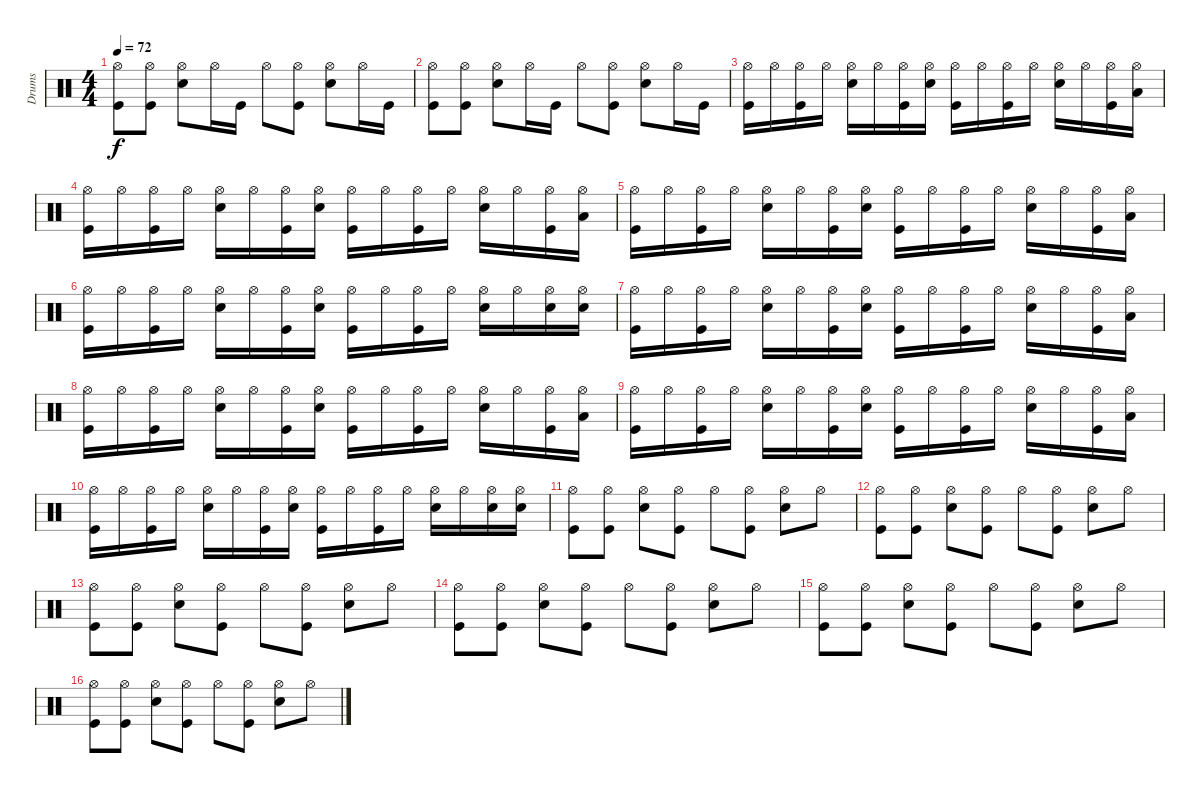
\track ("Drums" "Drums") {instrument percussion}
\staff {score}
\articulation defaults
\ts (4 4)
\tempo 72
\clef neutral
\ks c
("Kick (hit)" "Hi-Hat (open)").8{dy f} ("Kick (hit)" "Hi-Hat (open)").8 ("Snare (hit) 2" "Hi-Hat (open)").8 "Hi-Hat (open)".16 "Kick (hit)".16 "Hi-Hat (open)".8 ("Hi-Hat (open)" "Kick (hit)").8 ("Snare (hit) 2" "Hi-Hat (open)").8 "Hi-Hat (open)".16 "Kick (hit)".16 |
("Kick (hit)" "Hi-Hat (open)").8 ("Kick (hit)" "Hi-Hat (open)").8 ("Snare (hit) 2" "Hi-Hat (open)").8 "Hi-Hat (open)".16 "Kick (hit)".16 "Hi-Hat (open)".8 ("Hi-Hat (open)" "Kick (hit)").8 ("Snare (hit) 2" "Hi-Hat (open)").8 "Hi-Hat (open)".16 "Kick (hit)".16 |
("Kick (hit)" "Hi-Hat (open)").16 "Hi-Hat (open)".16 ("Kick (hit)" "Hi-Hat (open)").16 "Hi-Hat (open)".16 ("Snare (hit) 2" "Hi-Hat (open)").16 "Hi-Hat (open)".16 ("Kick (hit)" "Hi-Hat (open)").16 ("Snare (hit) 2" "Hi-Hat (open)").16 ("Hi-Hat (open)" "Kick (hit)").16 "Hi-Hat (open)".16 ("Kick (hit)" "Hi-Hat (open)").16 "Hi-Hat (open)".16 ("Snare (hit) 2" "Hi-Hat (open)").16 "Hi-Hat (open)".16 ("Kick (hit)" "Hi-Hat (open)").16 ("Low Tom (hit)" "Hi-Hat (open)").16 |
("Kick (hit)" "Hi-Hat (open)").16 "Hi-Hat (open)".16 ("Kick (hit)" "Hi-Hat (open)").16 "Hi-Hat (open)".16 ("Snare (hit) 2" "Hi-Hat (open)").16 "Hi-Hat (open)".16 ("Kick (hit)" "Hi-Hat (open)").16 ("Snare (hit) 2" "Hi-Hat (open)").16 ("Kick (hit)" "Hi-Hat (open)").16 "Hi-Hat (open)".16 ("Kick (hit)" "Hi-Hat (open)").16 "Hi-Hat (open)".16 ("Snare (hit) 2" "Hi-Hat (open)").16 "Hi-Hat (open)".16 ("Kick (hit)" "Hi-Hat (open)").16 ("Low Tom (hit)" "Hi-Hat (open)").16 |
("Kick (hit)" "Hi-Hat (open)").16 "Hi-Hat (open)".16 ("Kick (hit)" "Hi-Hat (open)").16 "Hi-Hat (open)".16 ("Snare (hit) 2" "Hi-Hat (open)").16 "Hi-Hat (open)".16 ("Hi-Hat (open)" "Kick (hit)").16 ("Snare (hit) 2" "Hi-Hat (open)").16 ("Kick (hit)" "Hi-Hat (open)").16 "Hi-Hat (open)".16 ("Kick (hit)" "Hi-Hat (open)").16 "Hi-Hat (open)".16 ("Snare (hit) 2" "Hi-Hat (open)").16 "Hi-Hat (open)".16 ("Kick (hit)" "Hi-Hat (open)").16 ("Low Tom (hit)" "Hi-Hat (open)").16 |
("Kick (hit)" "Hi-Hat (open)").16 "Hi-Hat (open)".16 ("Kick (hit)" "Hi-Hat (open)").16 "Hi-Hat (open)".16 ("Snare (hit) 2" "Hi-Hat (open)").16 "Hi-Hat (open)".16 ("Hi-Hat (open)" "Kick (hit)").16 ("Snare (hit) 2" "Hi-Hat (open)").16 ("Kick (hit)" "Hi-Hat (open)").16 "Hi-Hat (open)".16 ("Kick (hit)" "Hi-Hat (open)").16 "Hi-Hat (open)".16 ("Snare (hit) 2" "Hi-Hat (open)").16 "Hi-Hat (open)".16 ("Hi-Hat (open)" "Snare (hit) 2").16 ("Snare (hit) 2" "Hi-Hat (open)").16 |
("Kick (hit)" "Hi-Hat (open)").16 "Hi-Hat (open)".16 ("Kick (hit)" "Hi-Hat (open)").16 "Hi-Hat (open)".16 ("Snare (hit) 2" "Hi-Hat (open)").16 "Hi-Hat (open)".16 ("Kick (hit)" "Hi-Hat (open)").16 ("Snare (hit) 2" "Hi-Hat (open)").16 ("Hi-Hat (open)" "Kick (hit)").16 "Hi-Hat (open)".16 ("Kick (hit)" "Hi-Hat (open)").16 "Hi-Hat (open)".16 ("Snare (hit) 2" "Hi-Hat (open)").16 "Hi-Hat (open)".16 ("Kick (hit)" "Hi-Hat (open)").16 ("Low Tom (hit)" "Hi-Hat (open)").16 |
("Kick (hit)" "Hi-Hat (open)").16 "Hi-Hat (open)".16 ("Kick (hit)" "Hi-Hat (open)").16 "Hi-Hat (open)".16 ("Snare (hit) 2" "Hi-Hat (open)").16 "Hi-Hat (open)".16 ("Kick (hit)" "Hi-Hat (open)").16 ("Snare (hit) 2" "Hi-Hat (open)").16 ("Kick (hit)" "Hi-Hat (open)").16 "Hi-Hat (open)".16 ("Kick (hit)" "Hi-Hat (open)").16 "Hi-Hat (open)".16 ("Snare (hit) 2" "Hi-Hat (open)").16 "Hi-Hat (open)".16 ("Kick (hit)" "Hi-Hat (open)").16 ("Low Tom (hit)" "Hi-Hat (open)").16 |
("Kick (hit)" "Hi-Hat (open)").16 "Hi-Hat (open)".16 ("Kick (hit)" "Hi-Hat (open)").16 "Hi-Hat (open)".16 ("Snare (hit) 2" "Hi-Hat (open)").16 "Hi-Hat (open)".16 ("Hi-Hat (open)" "Kick (hit)").16 ("Snare (hit) 2" "Hi-Hat (open)").16 ("Kick (hit)" "Hi-Hat (open)").16 "Hi-Hat (open)".16 ("Kick (hit)" "Hi-Hat (open)").16 "Hi-Hat (open)".16 ("Snare (hit) 2" "Hi-Hat (open)").16 "Hi-Hat (open)".16 ("Kick (hit)" "Hi-Hat (open)").16 ("Low Tom (hit)" "Hi-Hat (open)").16 |
("Kick (hit)" "Hi-Hat (open)").16 "Hi-Hat (open)".16 ("Kick (hit)" "Hi-Hat (open)").16 "Hi-Hat (open)".16 ("Snare (hit) 2" "Hi-Hat (open)").16 "Hi-Hat (open)".16 ("Hi-Hat (open)" "Kick (hit)").16 ("Snare (hit) 2" "Hi-Hat (open)").16 ("Kick (hit)" "Hi-Hat (open)").16 "Hi-Hat (open)".16 ("Kick (hit)" "Hi-Hat (open)").16 "Hi-Hat (open)".16 ("Snare (hit) 2" "Hi-Hat (open)").16 "Hi-Hat (open)".16 ("Hi-Hat (open)" "Snare (hit) 2").16 ("Snare (hit) 2" "Hi-Hat (open)").16 |
("Kick (hit)" "Hi-Hat (open)").8 ("Kick (hit)" "Hi-Hat (open)").8 ("Snare (hit) 2" "Hi-Hat (open)").8 ("Kick (hit)" "Hi-Hat (open)").8 "Hi-Hat (open)".8 ("Kick (hit)" "Hi-Hat (open)").8 ("Snare (hit) 2" "Hi-Hat (open)").8 "Hi-Hat (open)".8 |
("Kick (hit)" "Hi-Hat (open)").8 ("Kick (hit)" "Hi-Hat (open)").8 ("Snare (hit) 2" "Hi-Hat (open)").8 ("Kick (hit)" "Hi-Hat (open)").8 "Hi-Hat (open)".8 ("Kick (hit)" "Hi-Hat (open)").8 ("Snare (hit) 2" "Hi-Hat (open)").8 "Hi-Hat (open)".8 |
("Kick (hit)" "Hi-Hat (open)").8 ("Kick (hit)" "Hi-Hat (open)").8 ("Snare (hit) 2" "Hi-Hat (open)").8 ("Kick (hit)" "Hi-Hat (open)").8 "Hi-Hat (open)".8 ("Kick (hit)" "Hi-Hat (open)").8 ("Snare (hit) 2" "Hi-Hat (open)").8 "Hi-Hat (open)".8 |
("Kick (hit)" "Hi-Hat (open)").8 ("Kick (hit)" "Hi-Hat (open)").8 ("Snare (hit) 2" "Hi-Hat (open)").8 ("Kick (hit)" "Hi-Hat (open)").8 "Hi-Hat (open)".8 ("Kick (hit)" "Hi-Hat (open)").8 ("Snare (hit) 2" "Hi-Hat (open)").8 "Hi-Hat (open)".8 |
("Kick (hit)" "Hi-Hat (open)").8 ("Kick (hit)" "Hi-Hat (open)").8 ("Snare (hit) 2" "Hi-Hat (open)").8 ("Kick (hit)" "Hi-Hat (open)").8 "Hi-Hat (open)".8 ("Kick (hit)" "Hi-Hat (open)").8 ("Snare (hit) 2" "Hi-Hat (open)").8 "Hi-Hat (open)".8 |
("Kick (hit)" "Hi-Hat (open)").8 ("Kick (hit)" "Hi-Hat (open)").8 ("Snare (hit) 2" "Hi-Hat (open)").8 ("Kick (hit)" "Hi-Hat (open)").8 "Hi-Hat (open)".8 ("Kick (hit)" "Hi-Hat (open)").8 ("Snare (hit) 2" "Hi-Hat (open)").8 "Hi-Hat (open)".8
